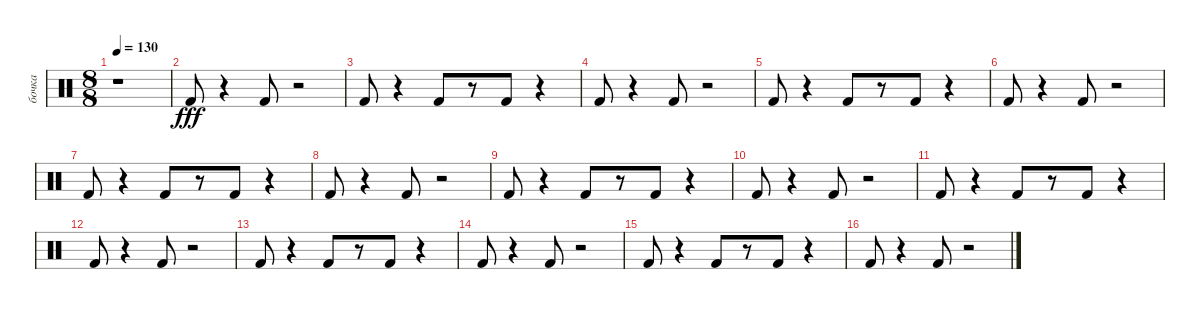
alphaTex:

\track ("бочка" "бочка") {instrument percussion}
\staff {score}
\articulation defaults
\ts (8 8)
\tempo 130
\clef neutral
\ks c
r.1{dy fff} |
"Kick (hit) 2".8 r.4 "Kick (hit) 2".8 r.2 |
"Kick (hit) 2".8 r.4 "Kick (hit) 2".8 r.8 "Kick (hit) 2".8 r.4 |
"Kick (hit) 2".8 r.4 "Kick (hit) 2".8 r.2 |
"Kick (hit) 2".8 r.4 "Kick (hit) 2".8 r.8 "Kick (hit) 2".8 r.4 |
"Kick (hit) 2".8 r.4 "Kick (hit) 2".8 r.2 |
"Kick (hit) 2".8 r.4 "Kick (hit) 2".8 r.8 "Kick (hit) 2".8 r.4 |
"Kick (hit) 2".8 r.4 "Kick (hit) 2".8 r.2 |
"Kick (hit) 2".8 r.4 "Kick (hit) 2".8 r.8 "Kick (hit) 2".8 r.4 |
"Kick (hit) 2".8 r.4 "Kick (hit) 2".8 r.2 |
"Kick (hit) 2".8 r.4 "Kick (hit) 2".8 r.8 "Kick (hit) 2".8 r.4 |
"Kick (hit) 2".8 r.4 "Kick (hit) 2".8 r.2 |
"Kick (hit) 2".8 r.4 "Kick (hit) 2".8 r.8 "Kick (hit) 2".8 r.4 |
"Kick (hit) 2".8 r.4 "Kick (hit) 2".8 r.2 |
"Kick (hit) 2".8 r.4 "Kick (hit) 2".8 r.8 "Kick (hit) 2".8 r.4 |
"Kick (hit) 2".8 r.4 "Kick (hit) 2".8 r.2
